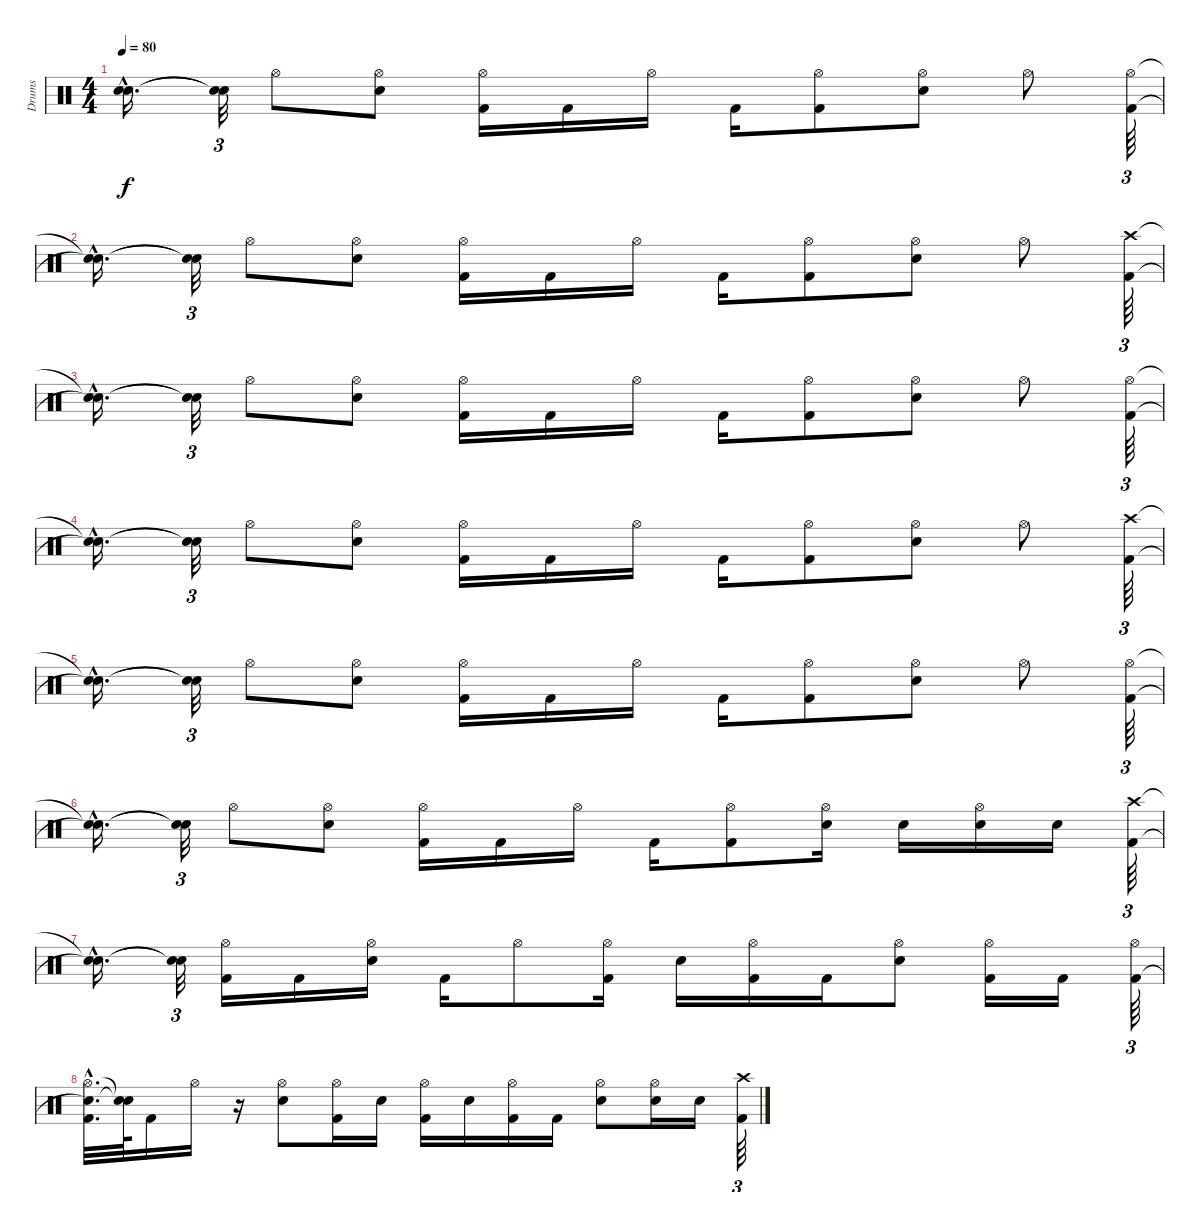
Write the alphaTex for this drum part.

\track ("Drums" "Drums") {instrument percussion}
\staff {score}
\articulation defaults
\ts (4 4)
\tempo 80
\clef neutral
\ks c
("Snare (hit)"{hac t} "Snare (hit)"{hac t}).16{d dy f} ("Snare (hit)"{t} "Snare (hit)"{t}).32{tu (3 2)} "Hi-Hat (open)".8 ("Hi-Hat (open)" "Electric Snare (hit)").8 ("Hi-Hat (open)" "Kick (hit) 2").16 "Kick (hit) 2".16 "Hi-Hat (open)".16 "Kick (hit) 2".16 ("Hi-Hat (open)" "Kick (hit) 2").8 ("Hi-Hat (open)" "Electric Snare (hit)").8 "Hi-Hat (open)".8 ("Hi-Hat (open)" "Kick (hit) 2").64{tu (3 2)} |
("Snare (hit)"{hac t} "Snare (hit)"{hac t}).16{d} ("Snare (hit)"{t} "Snare (hit)"{t}).32{tu (3 2)} "Hi-Hat (open)".8 ("Hi-Hat (open)" "Electric Snare (hit)").8 ("Hi-Hat (open)" "Kick (hit) 2").16 "Kick (hit) 2".16 "Hi-Hat (open)".16 "Kick (hit) 2".16 ("Hi-Hat (open)" "Kick (hit) 2").8 ("Hi-Hat (open)" "Electric Snare (hit)").8 "Hi-Hat (open)".8 ("Crash high (hit)" "Kick (hit) 2").64{tu (3 2)} |
("Snare (hit)"{hac t} "Snare (hit)"{hac t}).16{d} ("Snare (hit)"{t} "Snare (hit)"{t}).32{tu (3 2)} "Hi-Hat (open)".8 ("Hi-Hat (open)" "Electric Snare (hit)").8 ("Hi-Hat (open)" "Kick (hit) 2").16 "Kick (hit) 2".16 "Hi-Hat (open)".16 "Kick (hit) 2".16 ("Hi-Hat (open)" "Kick (hit) 2").8 ("Hi-Hat (open)" "Electric Snare (hit)").8 "Hi-Hat (open)".8 ("Hi-Hat (open)" "Kick (hit) 2").64{tu (3 2)} |
("Snare (hit)"{hac t} "Snare (hit)"{hac t}).16{d} ("Snare (hit)"{t} "Snare (hit)"{t}).32{tu (3 2)} "Hi-Hat (open)".8 ("Hi-Hat (open)" "Electric Snare (hit)").8 ("Hi-Hat (open)" "Kick (hit) 2").16 "Kick (hit) 2".16 "Hi-Hat (open)".16 "Kick (hit) 2".16 ("Hi-Hat (open)" "Kick (hit) 2").8 ("Hi-Hat (open)" "Electric Snare (hit)").8 "Hi-Hat (open)".8 ("Crash high (hit)" "Kick (hit) 2").64{tu (3 2)} |
("Snare (hit)"{hac t} "Snare (hit)"{hac t}).16{d} ("Snare (hit)"{t} "Snare (hit)"{t}).32{tu (3 2)} "Hi-Hat (open)".8 ("Hi-Hat (open)" "Electric Snare (hit)").8 ("Hi-Hat (open)" "Kick (hit) 2").16 "Kick (hit) 2".16 "Hi-Hat (open)".16 "Kick (hit) 2".16 ("Hi-Hat (open)" "Kick (hit) 2").8 ("Hi-Hat (open)" "Electric Snare (hit)").8 "Hi-Hat (open)".8 ("Hi-Hat (open)" "Kick (hit) 2").64{tu (3 2)} |
("Snare (hit)"{hac t} "Snare (hit)"{hac t}).16{d} ("Snare (hit)"{t} "Snare (hit)"{t}).32{tu (3 2)} "Hi-Hat (open)".8 ("Hi-Hat (open)" "Electric Snare (hit)").8 ("Hi-Hat (open)" "Kick (hit) 2").16 "Kick (hit) 2".16 "Hi-Hat (open)".16 "Kick (hit) 2".16 ("Hi-Hat (open)" "Kick (hit) 2").8 ("Hi-Hat (open)" "Electric Snare (hit)").16 "Electric Snare (hit)".16 ("Hi-Hat (open)" "Electric Snare (hit)").16 "Electric Snare (hit)".16 ("Crash high (hit)" "Kick (hit) 2").64{tu (3 2)} |
("Snare (hit)"{hac t} "Snare (hit)"{hac t}).16{d} ("Snare (hit)"{t} "Snare (hit)"{t}).32{tu (3 2)} ("Hi-Hat (open)" "Kick (hit) 2").16 "Kick (hit) 2".16 ("Hi-Hat (open)" "Electric Snare (hit)").16 "Kick (hit) 2".16 "Hi-Hat (open)".8 ("Hi-Hat (open)" "Kick (hit) 2").16 "Electric Snare (hit)".16 ("Hi-Hat (open)" "Kick (hit) 2").16 "Kick (hit) 2".16 ("Hi-Hat (open)" "Electric Snare (hit)").8 ("Hi-Hat (open)" "Kick (hit) 2").16 "Kick (hit) 2".16 ("Hi-Hat (open)" "Kick (hit) 2").64{tu (3 2)} |
("Hi-Hat (open)"{hac} "Snare (hit)"{hac t} "Kick (hit) 2"{hac}).32{d} ("Snare (hit)"{t} "Snare (hit)"{t}).64 "Kick (hit) 2".16 "Hi-Hat (open)".16 r.16 ("Hi-Hat (open)" "Electric Snare (hit)").8 ("Hi-Hat (open)" "Kick (hit) 2").16 "Electric Snare (hit)".16 ("Hi-Hat (open)" "Kick (hit) 2").16 "Electric Snare (hit)".16 ("Hi-Hat (open)" "Kick (hit) 2").16 "Kick (hit) 2".16 ("Hi-Hat (open)" "Electric Snare (hit)").8 ("Hi-Hat (open)" "Electric Snare (hit)").16 "Electric Snare (hit)".16 ("Crash high (hit)" "Kick (hit) 2").64{tu (3 2)}
